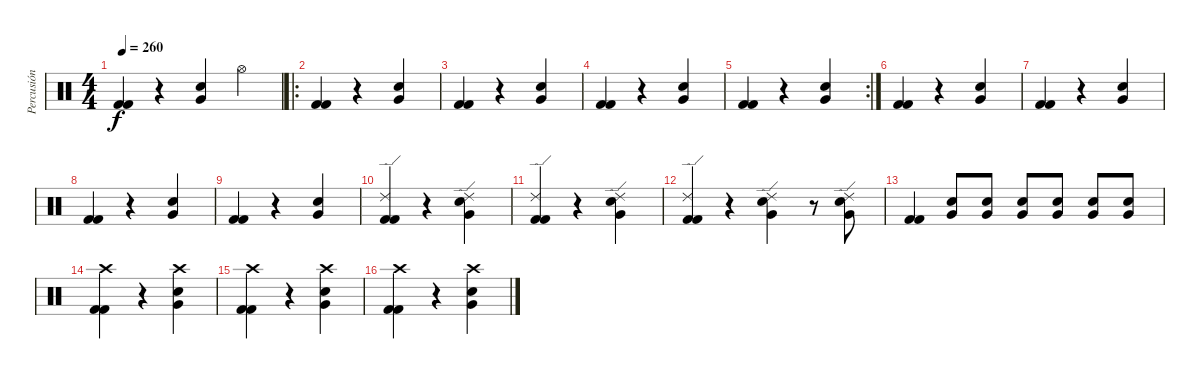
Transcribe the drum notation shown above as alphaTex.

\track ("Percusión" "Percusión") {instrument percussion}
\staff {score}
\articulation defaults
\ts (4 4)
\tempo 260
\clef neutral
\ks c
("Kick (hit) 2" "Kick (hit) 2").4{dy f} r.4 ("Very Low Tom (hit)" "Electric Snare (hit)").4 "Hi-Hat (open)".4 |
\ro
("Kick (hit) 2" "Kick (hit) 2").4 r.4 ("Very Low Tom (hit)" "Electric Snare (hit)").4 |
("Kick (hit) 2" "Kick (hit) 2").4 r.4 ("Very Low Tom (hit)" "Electric Snare (hit)").4 |
("Kick (hit) 2" "Kick (hit) 2").4 r.4 ("Very Low Tom (hit)" "Electric Snare (hit)").4 |
\rc 2
("Kick (hit) 2" "Kick (hit) 2").4 r.4 ("Very Low Tom (hit)" "Electric Snare (hit)").4 |
("Kick (hit) 2" "Kick (hit) 2").4 r.4 ("Very Low Tom (hit)" "Electric Snare (hit)").4 |
("Kick (hit) 2" "Kick (hit) 2").4 r.4 ("Very Low Tom (hit)" "Electric Snare (hit)").4 |
("Kick (hit) 2" "Kick (hit) 2").4 r.4 ("Very Low Tom (hit)" "Electric Snare (hit)").4 |
("Kick (hit) 2" "Kick (hit) 2").4 r.4 ("Very Low Tom (hit)" "Electric Snare (hit)").4 |
("Kick (hit) 2" "Kick (hit) 2" "Ride (edge) 2").4 r.4 ("Very Low Tom (hit)" "Electric Snare (hit)" "Ride (edge) 2").4 |
("Kick (hit) 2" "Kick (hit) 2" "Ride (edge) 2").4 r.4 ("Very Low Tom (hit)" "Electric Snare (hit)" "Ride (edge) 2").4 |
("Kick (hit) 2" "Kick (hit) 2" "Ride (edge) 2").4 r.4 ("Very Low Tom (hit)" "Electric Snare (hit)" "Ride (edge) 2").4 r.8 ("Very Low Tom (hit)" "Electric Snare (hit)" "Ride (edge) 2").8 |
("Kick (hit) 2" "Kick (hit) 2").4 ("Very Low Tom (hit)" "Electric Snare (hit)").8 ("Very Low Tom (hit)" "Electric Snare (hit)").8 ("Very Low Tom (hit)" "Electric Snare (hit)").8 ("Very Low Tom (hit)" "Electric Snare (hit)").8 ("Very Low Tom (hit)" "Electric Snare (hit)").8 ("Very Low Tom (hit)" "Electric Snare (hit)").8 |
("Kick (hit) 2" "Kick (hit) 2" "Crash high (hit)").4 r.4 ("Very Low Tom (hit)" "Electric Snare (hit)" "Crash high (hit)").4 |
("Kick (hit) 2" "Kick (hit) 2" "Crash high (hit)").4 r.4 ("Very Low Tom (hit)" "Electric Snare (hit)" "Crash high (hit)").4 |
("Kick (hit) 2" "Kick (hit) 2" "Crash high (hit)").4 r.4 ("Very Low Tom (hit)" "Electric Snare (hit)" "Crash high (hit)").4
